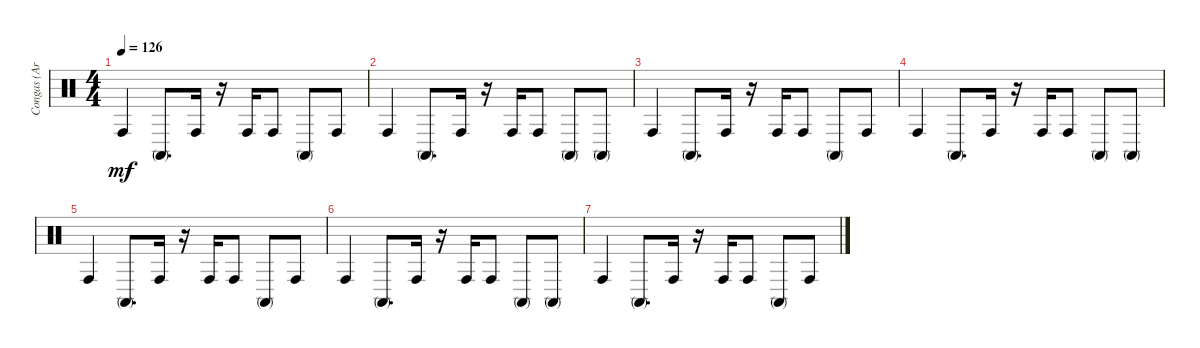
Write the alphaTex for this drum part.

\track ("Congas (Arthur Jenkins)" "Congas (Ar") {instrument percussion}
\staff {score}
\articulation defaults
\ts (4 4)
\tempo 126
\clef neutral
\ks c "Conga high (hit)".4{dy mf} "Conga high (mute)".8{d} "Conga high (hit)".16
r.16 "Conga high (hit)".16 "Conga high (hit)".8 "Conga high (mute)".8 "Conga high (hit)".8 |
"Conga high (hit)".4 "Conga high (mute)".8{d} "Conga high (hit)".16 r.16 "Conga high (hit)".16 "Conga high (hit)".8 "Conga high (mute)".8 "Conga high (mute)".8 |
"Conga high (hit)".4 "Conga high (mute)".8{d} "Conga high (hit)".16 r.16 "Conga high (hit)".16 "Conga high (hit)".8 "Conga high (mute)".8 "Conga high (hit)".8 |
"Conga high (hit)".4 "Conga high (mute)".8{d} "Conga high (hit)".16 r.16 "Conga high (hit)".16 "Conga high (hit)".8 "Conga high (mute)".8 "Conga high (mute)".8 |
"Conga high (hit)".4 "Conga high (mute)".8{d} "Conga high (hit)".16 r.16 "Conga high (hit)".16 "Conga high (hit)".8 "Conga high (mute)".8 "Conga high (hit)".8 |
"Conga high (hit)".4 "Conga high (mute)".8{d} "Conga high (hit)".16 r.16 "Conga high (hit)".16 "Conga high (hit)".8 "Conga high (mute)".8 "Conga high (mute)".8 |
"Conga high (hit)".4 "Conga high (mute)".8{d} "Conga high (hit)".16 r.16 "Conga high (hit)".16 "Conga high (hit)".8 "Conga high (mute)".8 "Conga high (hit)".8
